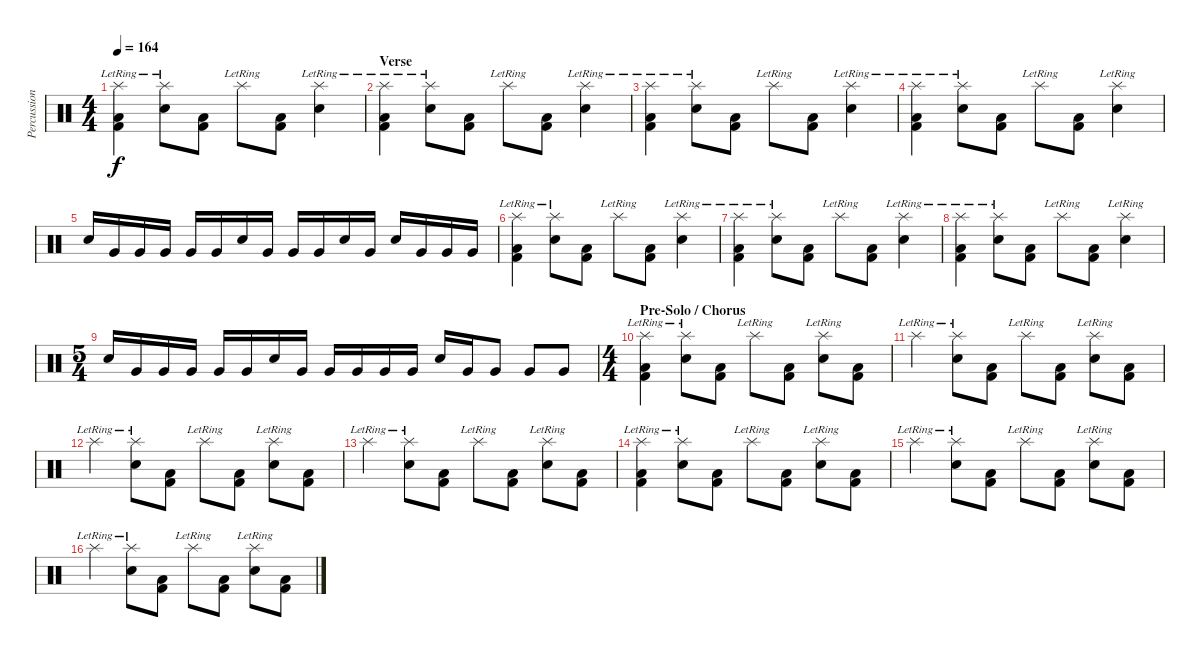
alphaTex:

\track ("Percussion" "Percussion") {instrument percussion}
\staff {score}
\articulation defaults
\ts (4 4)
\tempo 164
\clef neutral
\ks c
("Splash (hit)"{lr} "Low Floor Tom (hit)" "Kick (hit) 2").4{dy f} ("Splash (hit)"{lr} "Snare (hit) 2").8 ("Low Floor Tom (hit)" "Kick (hit) 2").8 "Splash (hit)"{lr}.8 ("Low Floor Tom (hit)" "Kick (hit) 2").8 ("Splash (hit)"{lr} "Snare (hit) 2").4 |
\section ("" "Verse")
("Splash (hit)"{lr} "Low Floor Tom (hit)" "Kick (hit) 2").4 ("Splash (hit)"{lr} "Snare (hit) 2").8 ("Low Floor Tom (hit)" "Kick (hit) 2").8 "Splash (hit)"{lr}.8 ("Low Floor Tom (hit)" "Kick (hit) 2").8 ("Splash (hit)"{lr} "Snare (hit) 2").4 |
("Splash (hit)"{lr} "Low Floor Tom (hit)" "Kick (hit) 2").4 ("Splash (hit)"{lr} "Snare (hit) 2").8 ("Low Floor Tom (hit)" "Kick (hit) 2").8 "Splash (hit)"{lr}.8 ("Low Floor Tom (hit)" "Kick (hit) 2").8 ("Splash (hit)"{lr} "Snare (hit) 2").4 |
("Splash (hit)"{lr} "Low Floor Tom (hit)" "Kick (hit) 2").4 ("Splash (hit)"{lr} "Snare (hit) 2").8 ("Low Floor Tom (hit)" "Kick (hit) 2").8 "Splash (hit)"{lr}.8 ("Low Floor Tom (hit)" "Kick (hit) 2").8 ("Splash (hit)"{lr} "Snare (hit) 2").4 |
"Snare (hit) 2".16 "Very Low Tom (hit)".16 "Very Low Tom (hit)".16 "Very Low Tom (hit)".16 "Very Low Tom (hit)".16 "Very Low Tom (hit)".16 "Snare (hit) 2".16 "Very Low Tom (hit)".16 "Very Low Tom (hit)".16 "Very Low Tom (hit)".16 "Snare (hit) 2".16 "Very Low Tom (hit)".16 "Snare (hit) 2".16 "Very Low Tom (hit)".16 "Very Low Tom (hit)".16 "Very Low Tom (hit)".16 |
("Splash (hit)"{lr} "Low Floor Tom (hit)" "Kick (hit) 2").4 ("Splash (hit)"{lr} "Snare (hit) 2").8 ("Low Floor Tom (hit)" "Kick (hit) 2").8 "Splash (hit)"{lr}.8 ("Low Floor Tom (hit)" "Kick (hit) 2").8 ("Splash (hit)"{lr} "Snare (hit) 2").4 |
("Splash (hit)"{lr} "Low Floor Tom (hit)" "Kick (hit) 2").4 ("Splash (hit)"{lr} "Snare (hit) 2").8 ("Low Floor Tom (hit)" "Kick (hit) 2").8 "Splash (hit)"{lr}.8 ("Low Floor Tom (hit)" "Kick (hit) 2").8 ("Splash (hit)"{lr} "Snare (hit) 2").4 |
("Splash (hit)"{lr} "Low Floor Tom (hit)" "Kick (hit) 2").4 ("Splash (hit)"{lr} "Snare (hit) 2").8 ("Low Floor Tom (hit)" "Kick (hit) 2").8 "Splash (hit)"{lr}.8 ("Low Floor Tom (hit)" "Kick (hit) 2").8 ("Splash (hit)"{lr} "Snare (hit) 2").4 |
\ts (5 4)
"Snare (hit) 2".16 "Very Low Tom (hit)".16 "Very Low Tom (hit)".16 "Very Low Tom (hit)".16 "Very Low Tom (hit)".16 "Very Low Tom (hit)".16 "Snare (hit) 2".16 "Very Low Tom (hit)".16 "Very Low Tom (hit)".16 "Very Low Tom (hit)".16 "Very Low Tom (hit)".16 "Very Low Tom (hit)".16 "Snare (hit) 2".16 "Very Low Tom (hit)".16 "Very Low Tom (hit)".8 "Very Low Tom (hit)".8 "Very Low Tom (hit)".8 |
\ts (4 4)
\section ("" "Pre-Solo / Chorus")
("Splash (hit)"{lr} "Low Floor Tom (hit)" "Kick (hit) 2").4 ("Splash (hit)"{lr} "Snare (hit) 2").8 ("Low Floor Tom (hit)" "Kick (hit) 2").8 "Splash (hit)"{lr}.8 ("Low Floor Tom (hit)" "Kick (hit) 2").8 ("Splash (hit)"{lr} "Snare (hit) 2").8 ("Low Floor Tom (hit)" "Kick (hit) 2").8 |
"Splash (hit)"{lr}.4 ("Splash (hit)"{lr} "Snare (hit) 2").8 ("Low Floor Tom (hit)" "Kick (hit) 2").8 "Splash (hit)"{lr}.8 ("Low Floor Tom (hit)" "Kick (hit) 2").8 ("Splash (hit)"{lr} "Snare (hit) 2").8 ("Low Floor Tom (hit)" "Kick (hit) 2").8 |
"Splash (hit)"{lr}.4 ("Splash (hit)"{lr} "Snare (hit) 2").8 ("Low Floor Tom (hit)" "Kick (hit) 2").8 "Splash (hit)"{lr}.8 ("Low Floor Tom (hit)" "Kick (hit) 2").8 ("Splash (hit)"{lr} "Snare (hit) 2").8 ("Low Floor Tom (hit)" "Kick (hit) 2").8 |
"Splash (hit)"{lr}.4 ("Splash (hit)"{lr} "Snare (hit) 2").8 ("Low Floor Tom (hit)" "Kick (hit) 2").8 "Splash (hit)"{lr}.8 ("Low Floor Tom (hit)" "Kick (hit) 2").8 ("Splash (hit)"{lr} "Snare (hit) 2").8 ("Low Floor Tom (hit)" "Kick (hit) 2").8 |
("Splash (hit)"{lr} "Low Floor Tom (hit)" "Kick (hit) 2").4 ("Splash (hit)"{lr} "Snare (hit) 2").8 ("Low Floor Tom (hit)" "Kick (hit) 2").8 "Splash (hit)"{lr}.8 ("Low Floor Tom (hit)" "Kick (hit) 2").8 ("Splash (hit)"{lr} "Snare (hit) 2").8 ("Low Floor Tom (hit)" "Kick (hit) 2").8 |
"Splash (hit)"{lr}.4 ("Splash (hit)"{lr} "Snare (hit) 2").8 ("Low Floor Tom (hit)" "Kick (hit) 2").8 "Splash (hit)"{lr}.8 ("Low Floor Tom (hit)" "Kick (hit) 2").8 ("Splash (hit)"{lr} "Snare (hit) 2").8 ("Low Floor Tom (hit)" "Kick (hit) 2").8 |
"Splash (hit)"{lr}.4 ("Splash (hit)"{lr} "Snare (hit) 2").8 ("Low Floor Tom (hit)" "Kick (hit) 2").8 "Splash (hit)"{lr}.8 ("Low Floor Tom (hit)" "Kick (hit) 2").8 ("Splash (hit)"{lr} "Snare (hit) 2").8 ("Low Floor Tom (hit)" "Kick (hit) 2").8
